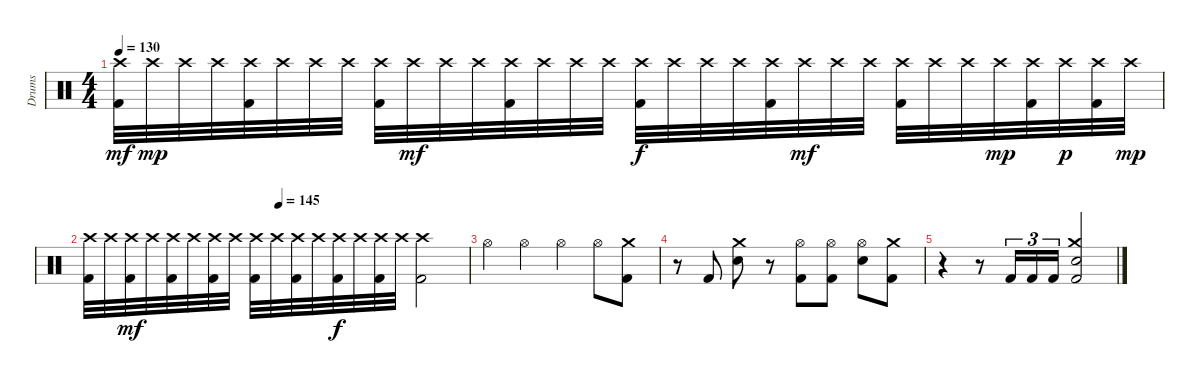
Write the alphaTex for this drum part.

\track ("Drums" "Drums") {instrument percussion}
\staff {score}
\articulation defaults
\ts (4 4)
\tempo 130
\clef neutral
\ks c
("Crash high (hit)" "Kick (hit) 2").32{dy mf} "Crash high (hit)".32{dy mp} "Crash high (hit)".32 "Crash high (hit)".32 ("Crash high (hit)" "Kick (hit) 2").32 "Crash high (hit)".32 "Crash high (hit)".32 "Crash high (hit)".32 ("Crash high (hit)" "Kick (hit) 2").32 "Crash high (hit)".32{dy mf} "Crash high (hit)".32 "Crash high (hit)".32 ("Crash high (hit)" "Kick (hit) 2").32 "Crash high (hit)".32 "Crash high (hit)".32 "Crash high (hit)".32 ("Crash high (hit)" "Kick (hit) 2").32{dy f} "Crash high (hit)".32 "Crash high (hit)".32 "Crash high (hit)".32 ("Crash high (hit)" "Kick (hit) 2").32 "Crash high (hit)".32{dy mf} "Crash high (hit)".32 "Crash high (hit)".32 ("Crash high (hit)" "Kick (hit) 2").32 "Crash high (hit)".32 "Crash high (hit)".32 "Crash high (hit)".32{dy mp} ("Crash high (hit)" "Kick (hit) 2").32 "Crash high (hit)".32{dy p} ("Crash high (hit)" "Kick (hit) 2").32 "Crash high (hit)".32{dy mp} |
\tempo (145 0.5)
("Crash high (hit)" "Kick (hit) 2").32 "Crash high (hit)".32 ("Crash high (hit)" "Kick (hit) 2").32{dy mf} "Crash high (hit)".32 ("Crash high (hit)" "Kick (hit) 2").32 "Crash high (hit)".32 ("Crash high (hit)" "Kick (hit) 2").32 "Crash high (hit)".32 ("Crash high (hit)" "Kick (hit) 2").32 "Crash high (hit)".32 ("Crash high (hit)" "Kick (hit) 2").32 "Crash high (hit)".32 ("Crash high (hit)" "Kick (hit) 2").32{dy f} "Crash high (hit)".32 ("Crash high (hit)" "Kick (hit) 2").32 "Crash high (hit)".32 ("Crash high (hit)" "Kick (hit) 2").2 |
"Hi-Hat (open)".4 "Hi-Hat (open)".4 "Hi-Hat (open)".4 "Hi-Hat (open)".8 ("Crash medium (hit)" "Kick (hit) 2").8 |
r.8 "Kick (hit) 2".8 ("Crash medium (hit)" "Snare (hit) 2").8 r.8 ("Hi-Hat (open)" "Kick (hit) 2").8 ("Hi-Hat (open)" "Kick (hit) 2").8 ("Hi-Hat (open)" "Snare (hit) 2").8 ("Crash medium (hit)" "Kick (hit) 2").8 |
r.4 r.8 "Kick (hit) 2".16{tu (3 2)} "Kick (hit) 2".16{tu (3 2)} "Kick (hit) 2".16{tu (3 2)} ("Crash medium (hit)" "Snare (hit) 2" "Kick (hit) 2").2
